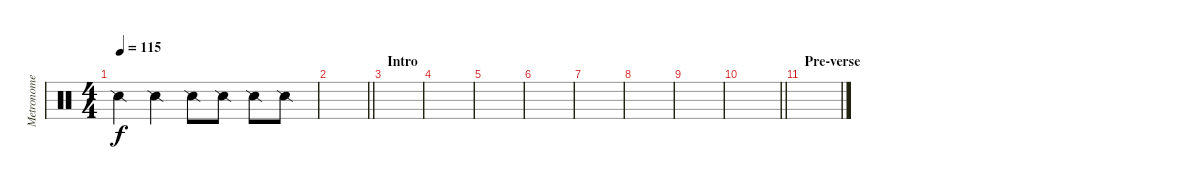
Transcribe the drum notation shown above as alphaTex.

\track ("Metronome" "Metronome") {instrument percussion}
\staff {score}
\articulation defaults
\ts (4 4)
\tempo 115
\clef neutral
\ks c "Snare (side stick) 2".4{dy f} "Snare (side stick) 2".4 "Snare (side stick) 2".8 "Snare (side stick) 2".8 "Snare (side stick) 2".8 "Snare (side stick) 2".8
|
\barLineRight lightlight
|
\section ("" "Intro")
|
|
|
|
|
|
|
\barLineRight lightlight
|
\section ("" "Pre-verse")
